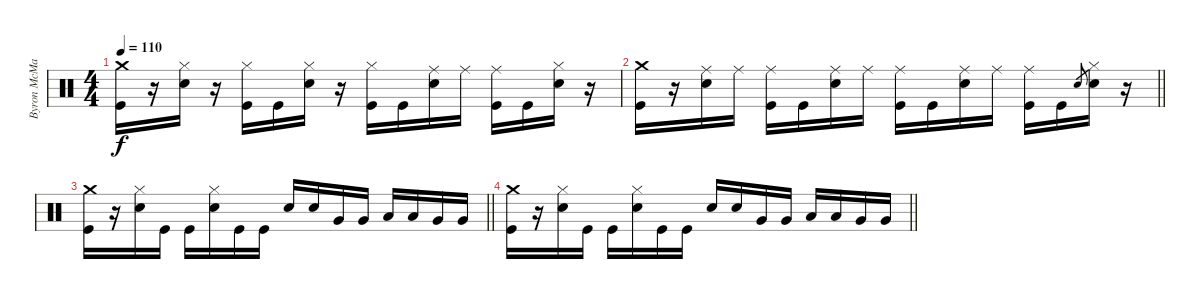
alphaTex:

\track ("Byron McMackin" "Byron McMa") {instrument percussion}
\staff {score}
\articulation defaults
\ts (4 4)
\tempo 110
\clef neutral
\ks c
("Crash medium (hit)" "Kick (hit)").16{dy f} r.16 ("Hi-Hat (closed)" "Electric Snare (hit)").16 r.16 ("Hi-Hat (closed)" "Kick (hit)").16 "Kick (hit)".16 ("Hi-Hat (closed)" "Electric Snare (hit)").16 r.16 ("Hi-Hat (closed)" "Kick (hit)").16 "Kick (hit)".16 ("Ride (middle)" "Electric Snare (hit)").16 "Ride (middle)".16 ("Ride (middle)" "Kick (hit)").16 "Kick (hit)".16 ("Hi-Hat (closed)" "Electric Snare (hit)").16 r.16 |
\barLineRight lightlight
("Crash medium (hit)" "Kick (hit)").16 r.16 ("Ride (middle)" "Electric Snare (hit)").16 "Ride (middle)".16 ("Ride (middle)" "Kick (hit)").16 "Kick (hit)".16 ("Ride (middle)" "Electric Snare (hit)").16 "Ride (middle)".16 ("Ride (middle)" "Kick (hit)").16 "Kick (hit)".16 ("Ride (middle)" "Electric Snare (hit)").16 "Ride (middle)".16 ("Ride (middle)" "Kick (hit)").16 "Kick (hit)".16 "Electric Snare (hit)".8{gr} ("Hi-Hat (closed)" "Electric Snare (hit)").16 r.16 |
\barLineRight lightlight
("Crash medium (hit)" "Kick (hit)").16 r.16 ("Hi-Hat (closed)" "Electric Snare (hit)").16 "Kick (hit)".16 "Kick (hit)".16 ("Hi-Hat (closed)" "Electric Snare (hit)").16 "Kick (hit)".16 "Kick (hit)".16 "Electric Snare (hit)".16 "Electric Snare (hit)".16 "Very Low Tom (hit)".16 "Very Low Tom (hit)".16 "Low Tom (hit)".16 "Low Tom (hit)".16 "Very Low Tom (hit)".16 "Very Low Tom (hit)".16 |
\barLineRight lightlight
("Crash medium (hit)" "Kick (hit)").16 r.16 ("Hi-Hat (closed)" "Electric Snare (hit)").16 "Kick (hit)".16 "Kick (hit)".16 ("Hi-Hat (closed)" "Electric Snare (hit)").16 "Kick (hit)".16 "Kick (hit)".16 "Electric Snare (hit)".16 "Electric Snare (hit)".16 "Very Low Tom (hit)".16 "Very Low Tom (hit)".16 "Low Tom (hit)".16 "Low Tom (hit)".16 "Very Low Tom (hit)".16 "Very Low Tom (hit)".16
